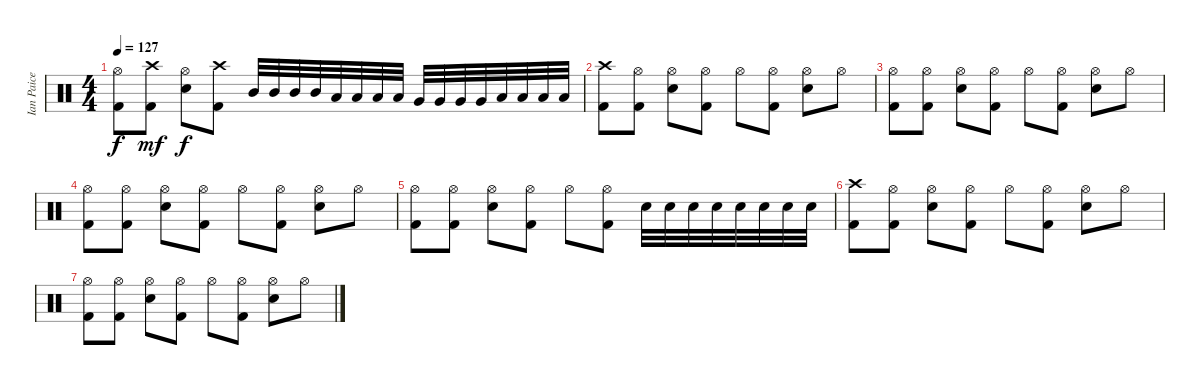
\track ("Ian Paice" "Ian Paice") {instrument percussion}
\staff {score}
\articulation defaults
\ts (4 4)
\tempo 127
\clef neutral
\ks c
("Hi-Hat (open)" "Kick (hit) 2").8{dy f} ("Crash high (hit)" "Kick (hit) 2").8{dy mf} ("Hi-Hat (open)" "Snare (hit) 2").8{dy f} ("Crash high (hit)" "Kick (hit) 2").8 "Mid Tom (hit)".32 "Mid Tom (hit)".32 "Mid Tom (hit)".32 "Mid Tom (hit)".32 "Low Tom (hit)".32 "Low Tom (hit)".32 "Low Tom (hit)".32 "Low Tom (hit)".32 "Very Low Tom (hit)".32 "Very Low Tom (hit)".32 "Very Low Tom (hit)".32 "Very Low Tom (hit)".32 "Low Floor Tom (hit)".32 "Low Floor Tom (hit)".32 "Low Floor Tom (hit)".32 "Low Floor Tom (hit)".32 |
("Crash high (hit)" "Kick (hit) 2").8 ("Hi-Hat (open)" "Kick (hit) 2").8 ("Hi-Hat (open)" "Snare (hit) 2").8 ("Hi-Hat (open)" "Kick (hit) 2").8 "Hi-Hat (open)".8 ("Hi-Hat (open)" "Kick (hit) 2").8 ("Hi-Hat (open)" "Snare (hit) 2").8 "Hi-Hat (open)".8 |
("Hi-Hat (open)" "Kick (hit) 2").8 ("Hi-Hat (open)" "Kick (hit) 2").8 ("Hi-Hat (open)" "Snare (hit) 2").8 ("Hi-Hat (open)" "Kick (hit) 2").8 "Hi-Hat (open)".8 ("Hi-Hat (open)" "Kick (hit) 2").8 ("Hi-Hat (open)" "Snare (hit) 2").8 "Hi-Hat (open)".8 |
("Hi-Hat (open)" "Kick (hit) 2").8 ("Hi-Hat (open)" "Kick (hit) 2").8 ("Hi-Hat (open)" "Snare (hit) 2").8 ("Hi-Hat (open)" "Kick (hit) 2").8 "Hi-Hat (open)".8 ("Hi-Hat (open)" "Kick (hit) 2").8 ("Hi-Hat (open)" "Snare (hit) 2").8 "Hi-Hat (open)".8 |
("Hi-Hat (open)" "Kick (hit) 2").8 ("Hi-Hat (open)" "Kick (hit) 2").8 ("Hi-Hat (open)" "Snare (hit) 2").8 ("Hi-Hat (open)" "Kick (hit) 2").8 "Hi-Hat (open)".8 ("Hi-Hat (open)" "Kick (hit) 2").8 "Snare (hit) 2".32 "Snare (hit) 2".32 "Snare (hit) 2".32 "Snare (hit) 2".32 "Snare (hit) 2".32 "Snare (hit) 2".32 "Snare (hit) 2".32 "Snare (hit) 2".32 |
("Crash high (hit)" "Kick (hit) 2").8 ("Hi-Hat (open)" "Kick (hit) 2").8 ("Hi-Hat (open)" "Snare (hit) 2").8 ("Hi-Hat (open)" "Kick (hit) 2").8 "Hi-Hat (open)".8 ("Hi-Hat (open)" "Kick (hit) 2").8 ("Hi-Hat (open)" "Snare (hit) 2").8 "Hi-Hat (open)".8 |
("Hi-Hat (open)" "Kick (hit) 2").8 ("Hi-Hat (open)" "Kick (hit) 2").8 ("Hi-Hat (open)" "Snare (hit) 2").8 ("Hi-Hat (open)" "Kick (hit) 2").8 "Hi-Hat (open)".8 ("Hi-Hat (open)" "Kick (hit) 2").8 ("Hi-Hat (open)" "Snare (hit) 2").8 "Hi-Hat (open)".8
